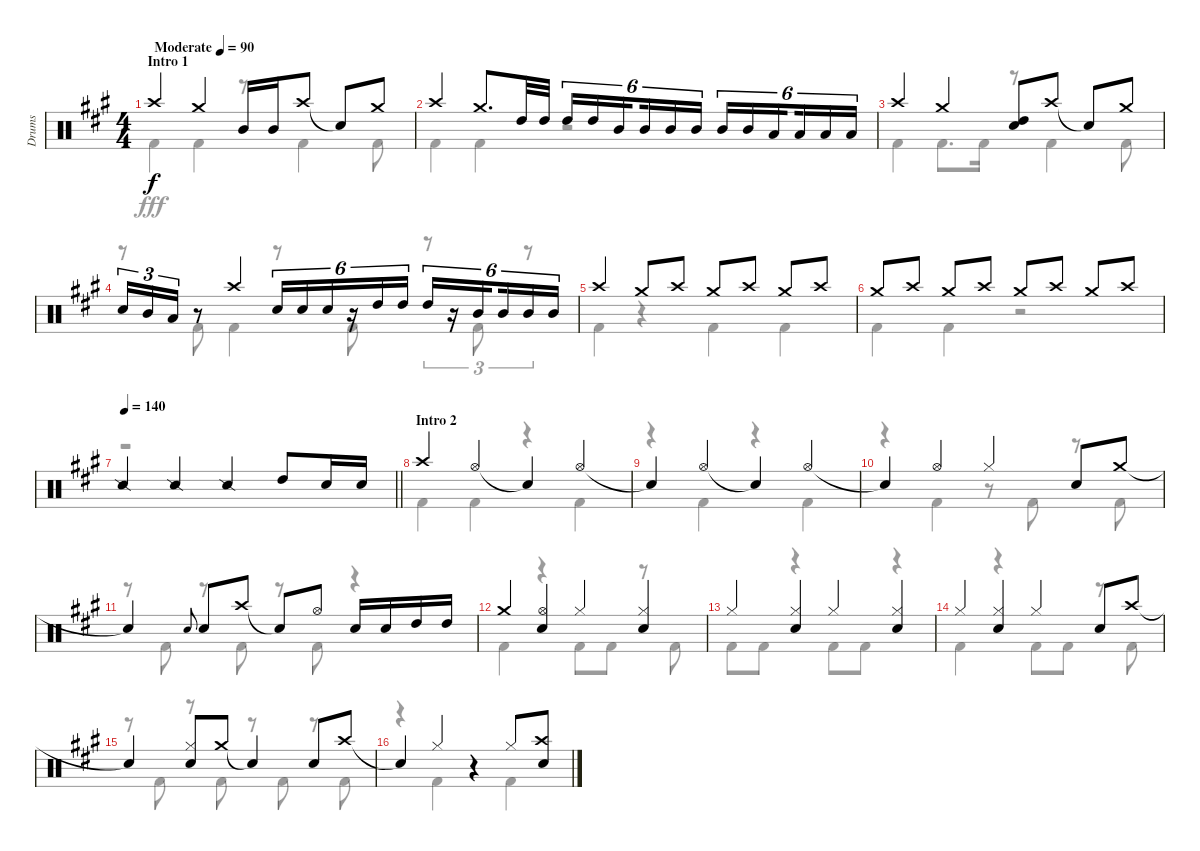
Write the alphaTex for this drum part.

\track ("Drums" "Drums") {instrument percussion}
\staff {score}
\articulation defaults
\voice
\ts (4 4)
\section ("" "Intro 1")
\tempo (90 "Moderate")
\clef neutral
\ks a "Crash high (hit)".4{dy f} "Crash medium (hit)".4 "Mid Tom (hit)".16 "Mid Tom (hit)".16 "Crash high (hit)".8 "Snare (hit)"{t}.8 "Crash medium (hit)".8
|
"Crash high (hit)".4 "Crash medium (hit)".8{d} "High Tom (hit)".32 "High Tom (hit)".32 "High Tom (hit)".16{tu (6 4)} "High Tom (hit)".16{tu (6 4)} "Mid Tom (hit)".16{tu (6 4) beam splitsecondary} "Mid Tom (hit)".16{tu (6 4)} "Mid Tom (hit)".16{tu (6 4)} "Mid Tom (hit)".16{tu (6 4)} "Mid Tom (hit)".16{tu (6 4)} "Mid Tom (hit)".16{tu (6 4)} "Low Tom (hit)".16{tu (6 4) beam splitsecondary} "Low Tom (hit)".16{tu (6 4)} "Low Tom (hit)".16{tu (6 4)} "Low Tom (hit)".16{tu (6 4)} |
"Crash high (hit)".4 "Crash medium (hit)".4 ("High Tom (hit)" "Snare (hit) 2").8 "Crash high (hit)".8 "Snare (hit)"{t}.8 "Crash medium (hit)".8 |
"Snare (hit) 2".16{tu (3 2)} "Mid Tom (hit)".16{tu (3 2)} "Low Tom (hit)".16{tu (3 2)} r.8 "Crash high (hit)".4 "Snare (hit) 2".16{tu (6 4)} "Snare (hit) 2".16{tu (6 4)} "Snare (hit) 2".16{tu (6 4)} r.16{tu (6 4)} "High Tom (hit)".16{tu (6 4)} "High Tom (hit)".16{tu (6 4)} "High Tom (hit)".16{tu (6 4)} r.16{tu (6 4)} "Mid Tom (hit)".16{tu (6 4) beam splitsecondary} "Mid Tom (hit)".16{tu (6 4)} "Mid Tom (hit)".16{tu (6 4)} "Mid Tom (hit)".16{tu (6 4)} |
"Crash high (hit)".4 "Crash medium (hit)".8 "Crash high (hit)".8 "Crash medium (hit)".8 "Crash high (hit)".8 "Crash medium (hit)".8 "Crash high (hit)".8 |
"Crash medium (hit)".8 "Crash high (hit)".8 "Crash medium (hit)".8 "Crash high (hit)".8 "Crash medium (hit)".8 "Crash high (hit)".8 "Crash medium (hit)".8 "Crash high (hit)".8 |
\tempo 140
\barLineRight lightlight "Snare (side stick) 2".4 "Snare (side stick) 2".4 "Snare (side stick) 2".4 "High Tom (hit)".8 "Snare (hit) 2".16 "Snare (hit) 2".16
|
\section ("" "Intro 2")
"Crash high (hit)".4 "Hi-Hat (open)".4 "Snare (hit)"{t}.4 "Hi-Hat (open)".4 |
"Snare (hit)"{t}.4 "Hi-Hat (open)".4 "Snare (hit)"{t}.4 "Hi-Hat (open)".4 |
"Snare (hit)"{t}.4 "Hi-Hat (open)".4 "Hi-Hat (closed)".4 "Snare (hit) 2".8 "Crash medium (hit)".8 |
"Snare (hit)"{t}.4 "Snare (hit) 2".8{gr onbeat} "Snare (hit) 2".8 "Crash high (hit)".8 "Snare (hit)"{t}.8 "Hi-Hat (open)".8 "Snare (hit) 2".16 "Snare (hit) 2".16 "High Tom (hit)".16 "High Tom (hit)".16 |
"Crash medium (hit)".4 ("Hi-Hat (open)" "Snare (hit) 2").4 "Hi-Hat (closed)".4 ("Hi-Hat (closed)" "Snare (hit) 2").4 |
"Hi-Hat (closed)".4 ("Hi-Hat (closed)" "Snare (hit) 2").4 "Hi-Hat (closed)".4 ("Hi-Hat (closed)" "Snare (hit) 2").4 |
"Hi-Hat (closed)".4 ("Hi-Hat (closed)" "Snare (hit) 2").4 "Hi-Hat (closed)".4 "Snare (hit) 2".8 "Crash high (hit)".8 |
"Snare (hit)"{t}.4 ("Hi-Hat (closed)" "Snare (hit) 2").8 "Crash medium (hit)".8 "Snare (hit)"{t}.4 "Snare (hit) 2".8 "Crash high (hit)".8 |
"Snare (hit)"{t}.4 "Hi-Hat (closed)".4 r.4 "Hi-Hat (closed)".8 ("Crash high (hit)" "Snare (hit) 2").8
\voice
\clef neutral
\ottava regular
\simile none
\ks a "Kick (hit) 2".4{dy fff} "Kick (hit) 2".4
r.8 "Kick (hit) 2".4 "Kick (hit) 2".8 |
"Kick (hit) 2".4 "Kick (hit) 2".4 r.2 |
"Kick (hit) 2".4 "Kick (hit) 2".8{d} "Kick (hit) 2".16 r.8 "Kick (hit) 2".4 "Kick (hit) 2".8 |
r.8 "Kick (hit) 2".8 "Kick (hit) 2".4 r.8 "Kick (hit) 2".8 r.8{tu (3 2)} "Kick (hit) 2".8{tu (3 2)} r.8{tu (3 2)} |
"Kick (hit) 2".4 r.4 "Kick (hit) 2".4 "Kick (hit) 2".4 |
"Kick (hit) 2".4 "Kick (hit) 2".4 r.2 |
\barLineRight lightlight
r.1 |
"Kick (hit) 2".4 "Kick (hit) 2".4 r.4 "Kick (hit) 2".4 |
r.4 "Kick (hit) 2".4 r.4 "Kick (hit) 2".4 |
r.4 "Kick (hit) 2".4 r.8 "Kick (hit) 2".8 r.8 "Kick (hit) 2".8 |
r.8 "Kick (hit) 2".8 r.8 "Kick (hit) 2".8 r.8 "Kick (hit) 2".8 r.4 |
"Kick (hit) 2".4 r.4 "Kick (hit) 2".8 "Kick (hit) 2".8 r.8 "Kick (hit) 2".8 |
"Kick (hit) 2".8 "Kick (hit) 2".8 r.4 "Kick (hit) 2".8 "Kick (hit) 2".8 r.4 |
"Kick (hit) 2".4 r.4 "Kick (hit) 2".8 "Kick (hit) 2".8 r.8 "Kick (hit) 2".8 |
r.8 "Kick (hit) 2".8 r.8 "Kick (hit) 2".8 r.8 "Kick (hit) 2".8 r.8 "Kick (hit) 2".8 |
r.4 "Kick (hit) 2".4 r.4 "Kick (hit) 2".4
